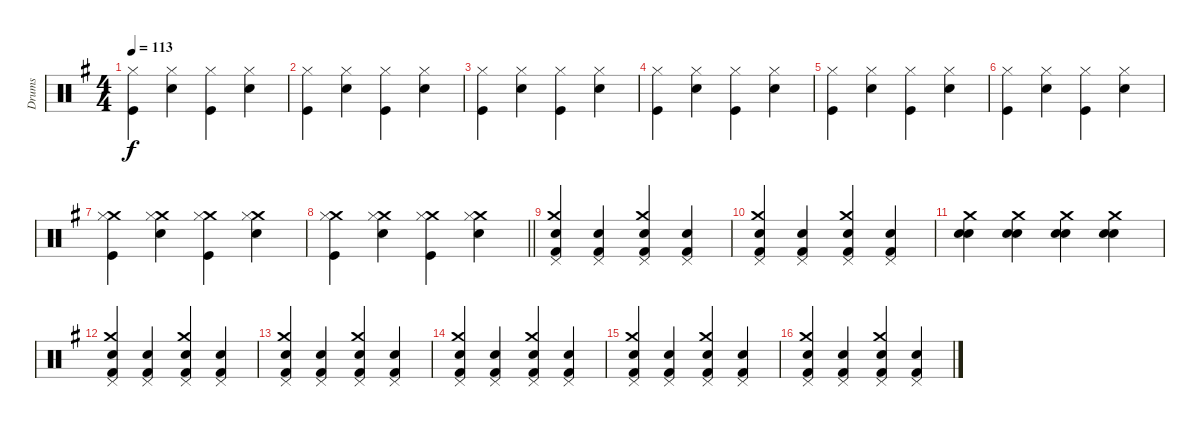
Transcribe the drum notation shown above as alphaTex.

\track ("Drums" "Drums") {instrument percussion}
\staff {score}
\articulation defaults
\ts (4 4)
\tempo 113
\clef neutral
\ks g
("Kick (hit)" "Hi-Hat (closed)").4{dy f} ("Snare (hit) 2" "Hi-Hat (closed)").4 ("Kick (hit)" "Hi-Hat (closed)").4 ("Snare (hit) 2" "Hi-Hat (closed)").4 |
("Kick (hit)" "Hi-Hat (closed)").4 ("Snare (hit) 2" "Hi-Hat (closed)").4 ("Kick (hit)" "Hi-Hat (closed)").4 ("Snare (hit) 2" "Hi-Hat (closed)").4 |
("Kick (hit)" "Hi-Hat (closed)").4 ("Snare (hit) 2" "Hi-Hat (closed)").4 ("Kick (hit)" "Hi-Hat (closed)").4 ("Snare (hit) 2" "Hi-Hat (closed)").4 |
("Kick (hit)" "Hi-Hat (closed)").4 ("Snare (hit) 2" "Hi-Hat (closed)").4 ("Kick (hit)" "Hi-Hat (closed)").4 ("Snare (hit) 2" "Hi-Hat (closed)").4 |
("Kick (hit)" "Hi-Hat (closed)").4 ("Snare (hit) 2" "Hi-Hat (closed)").4 ("Kick (hit)" "Hi-Hat (closed)").4 ("Snare (hit) 2" "Hi-Hat (closed)").4 |
("Kick (hit)" "Hi-Hat (closed)").4 ("Snare (hit) 2" "Hi-Hat (closed)").4 ("Kick (hit)" "Hi-Hat (closed)").4 ("Snare (hit) 2" "Hi-Hat (closed)").4 |
("Kick (hit)" "Crash medium (hit)" "Hi-Hat (closed)").4 ("Snare (hit) 2" "Crash medium (hit)" "Hi-Hat (closed)").4 ("Kick (hit)" "Crash medium (hit)" "Hi-Hat (closed)").4 ("Snare (hit) 2" "Crash medium (hit)" "Hi-Hat (closed)").4 |
\barLineRight lightlight
("Kick (hit)" "Crash medium (hit)" "Hi-Hat (closed)").4 ("Snare (hit) 2" "Crash medium (hit)" "Hi-Hat (closed)").4 ("Kick (hit)" "Crash medium (hit)" "Hi-Hat (closed)").4 ("Snare (hit) 2" "Crash medium (hit)" "Hi-Hat (closed)").4 |
("Kick (hit) 2" "Snare (hit) 2" "Crash medium (hit)" "Pedal Hi-Hat (hit)").4 ("Snare (hit) 2" "Kick (hit) 2" "Pedal Hi-Hat (hit)").4 ("Snare (hit) 2" "Kick (hit) 2" "Crash medium (hit)" "Pedal Hi-Hat (hit)").4 ("Snare (hit) 2" "Kick (hit) 2" "Pedal Hi-Hat (hit)").4 |
("Kick (hit) 2" "Snare (hit) 2" "Crash medium (hit)" "Pedal Hi-Hat (hit)").4 ("Snare (hit) 2" "Kick (hit) 2" "Pedal Hi-Hat (hit)").4 ("Snare (hit) 2" "Kick (hit) 2" "Crash medium (hit)" "Pedal Hi-Hat (hit)").4 ("Snare (hit) 2" "Kick (hit) 2" "Pedal Hi-Hat (hit)").4 |
("Snare (hit) 2" "Snare (hit) 2" "Crash medium (hit)").4 ("Crash medium (hit)" "Snare (hit) 2" "Snare (hit) 2").4 ("Crash medium (hit)" "Snare (hit) 2" "Snare (hit) 2").4 ("Snare (hit) 2" "Snare (hit) 2" "Crash medium (hit)").4 |
("Kick (hit) 2" "Snare (hit) 2" "Crash medium (hit)" "Pedal Hi-Hat (hit)").4 ("Snare (hit) 2" "Kick (hit) 2" "Pedal Hi-Hat (hit)").4 ("Snare (hit) 2" "Kick (hit) 2" "Crash medium (hit)" "Pedal Hi-Hat (hit)").4 ("Snare (hit) 2" "Kick (hit) 2" "Pedal Hi-Hat (hit)").4 |
("Kick (hit) 2" "Snare (hit) 2" "Crash medium (hit)" "Pedal Hi-Hat (hit)").4 ("Snare (hit) 2" "Kick (hit) 2" "Pedal Hi-Hat (hit)").4 ("Snare (hit) 2" "Kick (hit) 2" "Crash medium (hit)" "Pedal Hi-Hat (hit)").4 ("Snare (hit) 2" "Kick (hit) 2" "Pedal Hi-Hat (hit)").4 |
("Kick (hit) 2" "Snare (hit) 2" "Crash medium (hit)" "Pedal Hi-Hat (hit)").4 ("Snare (hit) 2" "Kick (hit) 2" "Pedal Hi-Hat (hit)").4 ("Snare (hit) 2" "Kick (hit) 2" "Crash medium (hit)" "Pedal Hi-Hat (hit)").4 ("Snare (hit) 2" "Kick (hit) 2" "Pedal Hi-Hat (hit)").4 |
("Kick (hit) 2" "Snare (hit) 2" "Crash medium (hit)" "Pedal Hi-Hat (hit)").4 ("Snare (hit) 2" "Kick (hit) 2" "Pedal Hi-Hat (hit)").4 ("Snare (hit) 2" "Kick (hit) 2" "Crash medium (hit)" "Pedal Hi-Hat (hit)").4 ("Snare (hit) 2" "Kick (hit) 2" "Pedal Hi-Hat (hit)").4 |
("Kick (hit) 2" "Snare (hit) 2" "Crash medium (hit)" "Pedal Hi-Hat (hit)").4 ("Snare (hit) 2" "Kick (hit) 2" "Pedal Hi-Hat (hit)").4 ("Snare (hit) 2" "Kick (hit) 2" "Crash medium (hit)" "Pedal Hi-Hat (hit)").4 ("Snare (hit) 2" "Kick (hit) 2" "Pedal Hi-Hat (hit)").4
